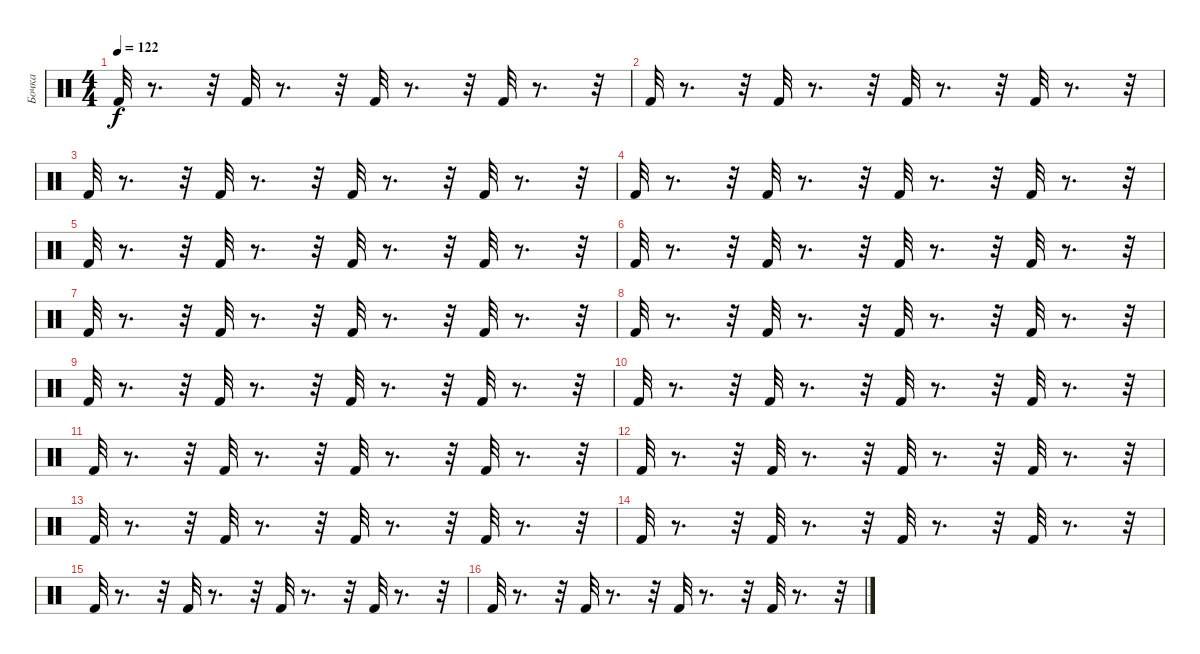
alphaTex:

\track ("Бочка" "Бочка") {instrument percussion}
\staff {score}
\articulation defaults
\ts (4 4)
\tempo 122
\clef neutral
\ks c "Kick (hit) 2".32{dy f}
r.8{d} r.32 "Kick (hit) 2".32 r.8{d} r.32 "Kick (hit) 2".32 r.8{d} r.32 "Kick (hit) 2".32 r.8{d} r.32 |
"Kick (hit) 2".32 r.8{d} r.32 "Kick (hit) 2".32 r.8{d} r.32 "Kick (hit) 2".32 r.8{d} r.32 "Kick (hit) 2".32 r.8{d} r.32 |
"Kick (hit) 2".32 r.8{d} r.32 "Kick (hit) 2".32 r.8{d} r.32 "Kick (hit) 2".32 r.8{d} r.32 "Kick (hit) 2".32 r.8{d} r.32 |
"Kick (hit) 2".32 r.8{d} r.32 "Kick (hit) 2".32 r.8{d} r.32 "Kick (hit) 2".32 r.8{d} r.32 "Kick (hit) 2".32 r.8{d} r.32 |
"Kick (hit) 2".32 r.8{d} r.32 "Kick (hit) 2".32 r.8{d} r.32 "Kick (hit) 2".32 r.8{d} r.32 "Kick (hit) 2".32 r.8{d} r.32 |
"Kick (hit) 2".32 r.8{d} r.32 "Kick (hit) 2".32 r.8{d} r.32 "Kick (hit) 2".32 r.8{d} r.32 "Kick (hit) 2".32 r.8{d} r.32 |
"Kick (hit) 2".32 r.8{d} r.32 "Kick (hit) 2".32 r.8{d} r.32 "Kick (hit) 2".32 r.8{d} r.32 "Kick (hit) 2".32 r.8{d} r.32 |
"Kick (hit) 2".32 r.8{d} r.32 "Kick (hit) 2".32 r.8{d} r.32 "Kick (hit) 2".32 r.8{d} r.32 "Kick (hit) 2".32 r.8{d} r.32 |
"Kick (hit) 2".32 r.8{d} r.32 "Kick (hit) 2".32 r.8{d} r.32 "Kick (hit) 2".32 r.8{d} r.32 "Kick (hit) 2".32 r.8{d} r.32 |
"Kick (hit) 2".32 r.8{d} r.32 "Kick (hit) 2".32 r.8{d} r.32 "Kick (hit) 2".32 r.8{d} r.32 "Kick (hit) 2".32 r.8{d} r.32 |
"Kick (hit) 2".32 r.8{d} r.32 "Kick (hit) 2".32 r.8{d} r.32 "Kick (hit) 2".32 r.8{d} r.32 "Kick (hit) 2".32 r.8{d} r.32 |
"Kick (hit) 2".32 r.8{d} r.32 "Kick (hit) 2".32 r.8{d} r.32 "Kick (hit) 2".32 r.8{d} r.32 "Kick (hit) 2".32 r.8{d} r.32 |
"Kick (hit) 2".32 r.8{d} r.32 "Kick (hit) 2".32 r.8{d} r.32 "Kick (hit) 2".32 r.8{d} r.32 "Kick (hit) 2".32 r.8{d} r.32 |
"Kick (hit) 2".32 r.8{d} r.32 "Kick (hit) 2".32 r.8{d} r.32 "Kick (hit) 2".32 r.8{d} r.32 "Kick (hit) 2".32 r.8{d} r.32 |
"Kick (hit) 2".32 r.8{d} r.32 "Kick (hit) 2".32 r.8{d} r.32 "Kick (hit) 2".32 r.8{d} r.32 "Kick (hit) 2".32 r.8{d} r.32 |
"Kick (hit) 2".32 r.8{d} r.32 "Kick (hit) 2".32 r.8{d} r.32 "Kick (hit) 2".32 r.8{d} r.32 "Kick (hit) 2".32 r.8{d} r.32
